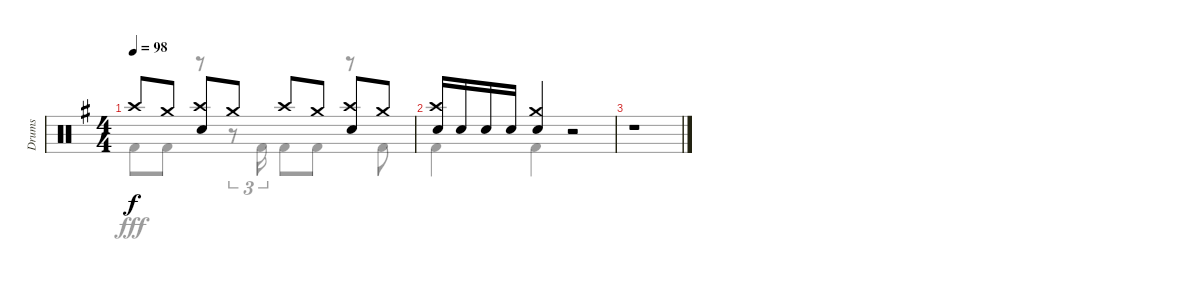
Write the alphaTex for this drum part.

\track ("Drums" "Drums") {instrument percussion}
\staff {score}
\articulation defaults
\voice
\ts (4 4)
\tempo 98
\clef neutral
\ks g "Crash high (hit)".8{dy f} "Crash medium (hit)".8
("Crash high (hit)" "Snare (hit) 2").8 "Crash medium (hit)".8 "Crash high (hit)".8 "Crash medium (hit)".8 ("Crash high (hit)" "Snare (hit) 2").8 "Crash medium (hit)".8 |
("Crash high (hit)" "Snare (hit) 2").16 "Snare (hit) 2".16 "Snare (hit) 2".16 "Snare (hit) 2".16 ("Crash medium (hit)" "Snare (hit) 2").4 r.2 |
r.1
\voice
\clef neutral
\ottava regular
\simile none
\ks g "Kick (hit) 2".8{dy fff} "Kick (hit) 2".8
r.8 r.8{tu (3 2)} "Kick (hit) 2".16{tu (3 2)} "Kick (hit) 2".8 "Kick (hit) 2".8 r.8 "Kick (hit) 2".8 |
"Kick (hit) 2".4 "Kick (hit) 2".4 r.2 |
r.1
